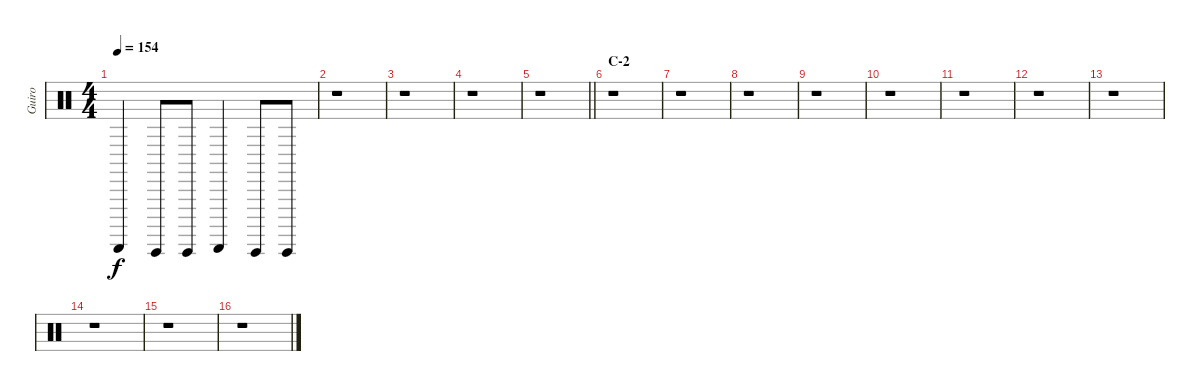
\track ("Guiro" "Guiro") {instrument percussion}
\staff {score}
\articulation defaults
\ts (4 4)
\tempo 154
\clef neutral
\ks c "Guiro (scrap-return)".4{dy f} "Guiro (hit)".8 "Guiro (hit)".8 "Guiro (scrap-return)".4 "Guiro (hit)".8 "Guiro (hit)".8
|
r.1 |
r.1 |
r.1 |
\barLineRight lightlight
r.1 |
\section ("" "C-2")
r.1 |
r.1 |
r.1 |
r.1 |
r.1 |
r.1 |
r.1 |
r.1 |
r.1 |
r.1 |
r.1
